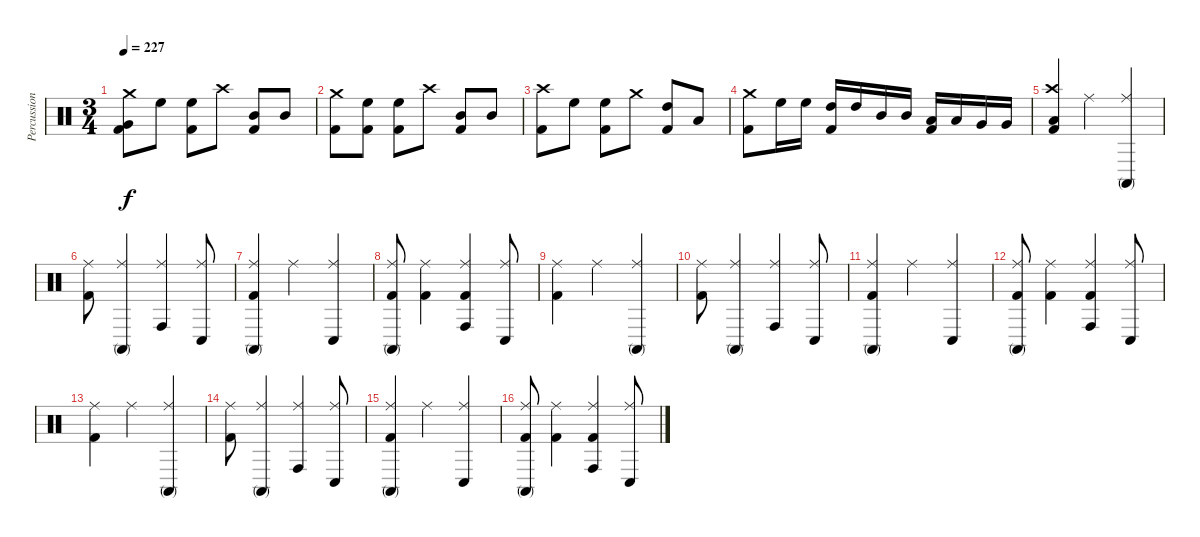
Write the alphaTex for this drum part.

\track ("Percussion" "Percussion") {instrument percussion}
\staff {score}
\articulation defaults
\ts (3 4)
\tempo 227
\clef neutral
\ks c
("Crash medium (hit)" "Very Low Tom (hit)" "Kick (hit) 2").8{dy f} "High Floor Tom (hit)".8 ("High Floor Tom (hit)" "Kick (hit) 2").8 "Crash high (hit)".8 ("Mid Tom (hit)" "Kick (hit) 2").8 "Mid Tom (hit)".8 |
("Crash medium (hit)" "Kick (hit) 2").8 ("High Floor Tom (hit)" "Kick (hit) 2").8 ("High Floor Tom (hit)" "Kick (hit) 2").8 "Crash high (hit)".8 ("Mid Tom (hit)" "Kick (hit) 2").8 "Mid Tom (hit)".8 |
("Crash high (hit)" "Kick (hit) 2").8 "High Floor Tom (hit)".8 ("High Floor Tom (hit)" "Kick (hit) 2").8 "Crash medium (hit)".8 ("High Tom (hit)" "Kick (hit) 2").8 "Low Tom (hit)".8 |
("Crash medium (hit)" "Kick (hit) 2").8 "High Floor Tom (hit)".16 "High Floor Tom (hit)".16 ("High Tom (hit)" "Kick (hit) 2").16 "High Tom (hit)".16 "Mid Tom (hit)".16 "Mid Tom (hit)".16 ("Low Tom (hit)" "Kick (hit) 2").16 "Low Tom (hit)".16 "Very Low Tom (hit)".16 "Very Low Tom (hit)".16 |
("Crash high (hit)" "Low Floor Tom (hit)" "Kick (hit) 2").4 "Ride (middle)".4 ("Ride (middle)" "Conga high (mute)").4 |
("Ride (middle)" "Kick (hit) 2").8 ("Ride (middle)" "Conga high (mute)").4 ("Ride (middle)" "Conga high (hit)").4 ("Ride (middle)" "Conga low (hit)").8 |
("Ride (middle)" "Conga high (mute)" "Kick (hit) 2").4 "Ride (middle)".4 ("Ride (middle)" "Conga low (hit)").4 |
("Ride (middle)" "Conga high (mute)" "Kick (hit) 2").8 ("Ride (middle)" "Kick (hit) 2").4 ("Ride (middle)" "Conga high (hit)" "Kick (hit) 2").4 ("Ride (middle)" "Conga low (hit)").8 |
("Ride (middle)" "Kick (hit) 2").4 "Ride (middle)".4 ("Ride (middle)" "Conga high (mute)").4 |
("Ride (middle)" "Kick (hit) 2").8 ("Ride (middle)" "Conga high (mute)").4 ("Ride (middle)" "Conga high (hit)").4 ("Ride (middle)" "Conga low (hit)").8 |
("Ride (middle)" "Conga high (mute)" "Kick (hit) 2").4 "Ride (middle)".4 ("Ride (middle)" "Conga low (hit)").4 |
("Ride (middle)" "Conga high (mute)" "Kick (hit) 2").8 ("Ride (middle)" "Kick (hit) 2").4 ("Ride (middle)" "Conga high (hit)" "Kick (hit) 2").4 ("Ride (middle)" "Conga low (hit)").8 |
("Ride (middle)" "Kick (hit) 2").4 "Ride (middle)".4 ("Ride (middle)" "Conga high (mute)").4 |
("Ride (middle)" "Kick (hit) 2").8 ("Ride (middle)" "Conga high (mute)").4 ("Ride (middle)" "Conga high (hit)").4 ("Ride (middle)" "Conga low (hit)").8 |
("Ride (middle)" "Conga high (mute)" "Kick (hit) 2").4 "Ride (middle)".4 ("Ride (middle)" "Conga low (hit)").4 |
("Ride (middle)" "Conga high (mute)" "Kick (hit) 2").8 ("Ride (middle)" "Kick (hit) 2").4 ("Ride (middle)" "Conga high (hit)" "Kick (hit) 2").4 ("Ride (middle)" "Conga low (hit)").8
